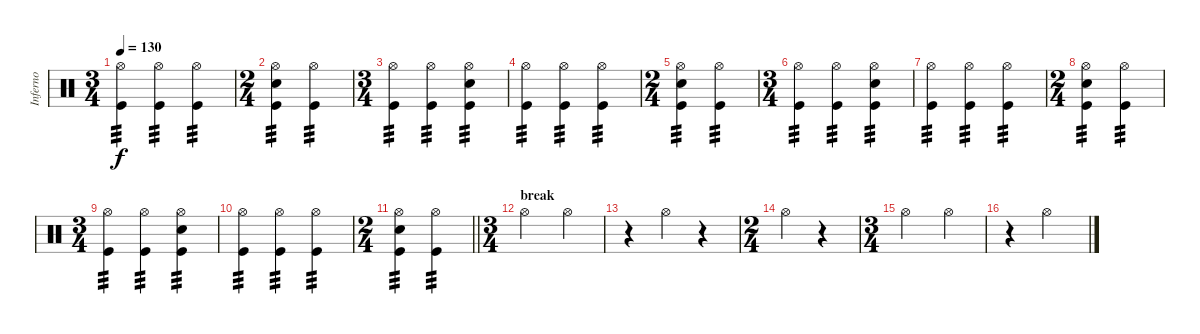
\track ("Inferno" "Inferno") {instrument percussion}
\staff {score}
\articulation defaults
\ts (3 4)
\tempo 130
\clef neutral
\ks c
("Hi-Hat (open)" "Kick (hit)").4{tp 3 dy f} ("Hi-Hat (open)" "Kick (hit)").4{tp 3} ("Hi-Hat (open)" "Kick (hit)").4{tp 3} |
\ts (2 4)
("Hi-Hat (open)" "Snare (hit) 2" "Kick (hit)").4{tp 3} ("Hi-Hat (open)" "Kick (hit)").4{tp 3} |
\ts (3 4)
("Hi-Hat (open)" "Kick (hit)").4{tp 3} ("Hi-Hat (open)" "Kick (hit)").4{tp 3} ("Hi-Hat (open)" "Snare (hit) 2" "Kick (hit)").4{tp 3} |
("Hi-Hat (open)" "Kick (hit)").4{tp 3} ("Hi-Hat (open)" "Kick (hit)").4{tp 3} ("Hi-Hat (open)" "Kick (hit)").4{tp 3} |
\ts (2 4)
("Hi-Hat (open)" "Snare (hit) 2" "Kick (hit)").4{tp 3} ("Hi-Hat (open)" "Kick (hit)").4{tp 3} |
\ts (3 4)
("Hi-Hat (open)" "Kick (hit)").4{tp 3} ("Hi-Hat (open)" "Kick (hit)").4{tp 3} ("Hi-Hat (open)" "Snare (hit) 2" "Kick (hit)").4{tp 3} |
("Hi-Hat (open)" "Kick (hit)").4{tp 3} ("Hi-Hat (open)" "Kick (hit)").4{tp 3} ("Hi-Hat (open)" "Kick (hit)").4{tp 3} |
\ts (2 4)
("Hi-Hat (open)" "Snare (hit) 2" "Kick (hit)").4{tp 3} ("Hi-Hat (open)" "Kick (hit)").4{tp 3} |
\ts (3 4)
("Hi-Hat (open)" "Kick (hit)").4{tp 3} ("Hi-Hat (open)" "Kick (hit)").4{tp 3} ("Hi-Hat (open)" "Snare (hit) 2" "Kick (hit)").4{tp 3} |
("Hi-Hat (open)" "Kick (hit)").4{tp 3} ("Hi-Hat (open)" "Kick (hit)").4{tp 3} ("Hi-Hat (open)" "Kick (hit)").4{tp 3} |
\ts (2 4)
\barLineRight lightlight
("Hi-Hat (open)" "Snare (hit) 2" "Kick (hit)").4{tp 3} ("Hi-Hat (open)" "Kick (hit)").4{tp 3} |
\ts (3 4)
\section ("" "break")
"Hi-Hat (open)".2 "Hi-Hat (open)".4 |
r.4 "Hi-Hat (open)".4 r.4 |
\ts (2 4)
"Hi-Hat (open)".4 r.4 |
\ts (3 4)
"Hi-Hat (open)".2 "Hi-Hat (open)".4 |
r.4 "Hi-Hat (open)".2
